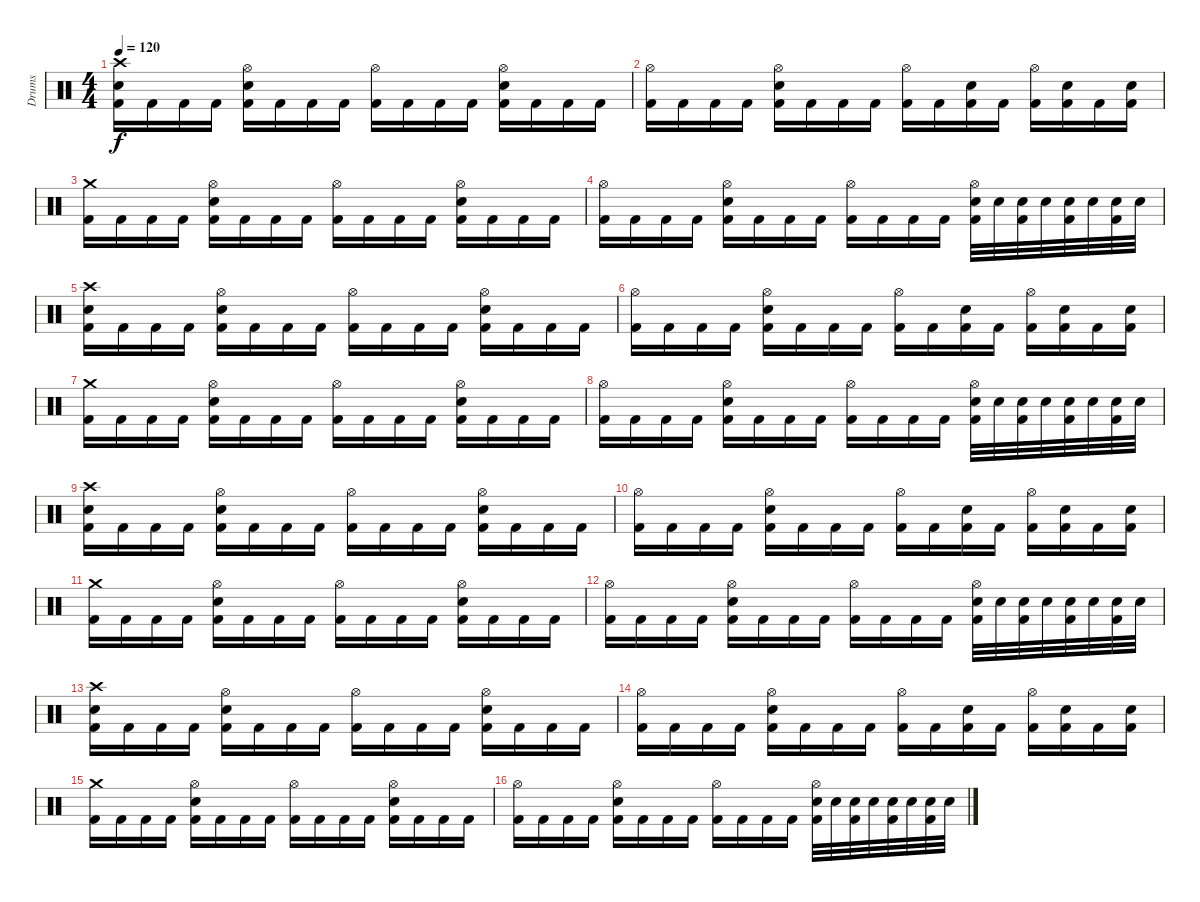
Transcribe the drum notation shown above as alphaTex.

\track ("Drums" "Drums") {instrument percussion}
\staff {score}
\articulation defaults
\ts (4 4)
\tempo 120
\clef neutral
\ks c
("Crash high (hit)" "Snare (hit) 2" "Kick (hit) 2").16{dy f} "Kick (hit) 2".16 "Kick (hit) 2".16 "Kick (hit) 2".16 ("Hi-Hat (open)" "Snare (hit) 2" "Kick (hit) 2").16 "Kick (hit) 2".16 "Kick (hit) 2".16 "Kick (hit) 2".16 ("Hi-Hat (open)" "Kick (hit) 2").16 "Kick (hit) 2".16 "Kick (hit) 2".16 "Kick (hit) 2".16 ("Hi-Hat (open)" "Snare (hit) 2" "Kick (hit) 2").16 "Kick (hit) 2".16 "Kick (hit) 2".16 "Kick (hit) 2".16 |
("Hi-Hat (open)" "Kick (hit) 2").16 "Kick (hit) 2".16 "Kick (hit) 2".16 "Kick (hit) 2".16 ("Hi-Hat (open)" "Snare (hit) 2" "Kick (hit) 2").16 "Kick (hit) 2".16 "Kick (hit) 2".16 "Kick (hit) 2".16 ("Hi-Hat (open)" "Kick (hit) 2").16 "Kick (hit) 2".16 ("Snare (hit) 2" "Kick (hit) 2").16 "Kick (hit) 2".16 ("Hi-Hat (open)" "Kick (hit) 2").16 ("Snare (hit) 2" "Kick (hit) 2").16 "Kick (hit) 2".16 ("Snare (hit) 2" "Kick (hit) 2").16 |
("Crash medium (hit)" "Kick (hit) 2").16 "Kick (hit) 2".16 "Kick (hit) 2".16 "Kick (hit) 2".16 ("Hi-Hat (open)" "Snare (hit) 2" "Kick (hit) 2").16 "Kick (hit) 2".16 "Kick (hit) 2".16 "Kick (hit) 2".16 ("Hi-Hat (open)" "Kick (hit) 2").16 "Kick (hit) 2".16 "Kick (hit) 2".16 "Kick (hit) 2".16 ("Hi-Hat (open)" "Snare (hit) 2" "Kick (hit) 2").16 "Kick (hit) 2".16 "Kick (hit) 2".16 "Kick (hit) 2".16 |
("Hi-Hat (open)" "Kick (hit) 2").16 "Kick (hit) 2".16 "Kick (hit) 2".16 "Kick (hit) 2".16 ("Hi-Hat (open)" "Snare (hit) 2" "Kick (hit) 2").16 "Kick (hit) 2".16 "Kick (hit) 2".16 "Kick (hit) 2".16 ("Hi-Hat (open)" "Kick (hit) 2").16 "Kick (hit) 2".16 "Kick (hit) 2".16 "Kick (hit) 2".16 ("Hi-Hat (open)" "Snare (hit) 2" "Kick (hit) 2").32 "Snare (hit) 2".32 ("Snare (hit) 2" "Kick (hit) 2").32 "Snare (hit) 2".32 ("Snare (hit) 2" "Kick (hit) 2").32 "Snare (hit) 2".32 ("Snare (hit) 2" "Kick (hit) 2").32 "Snare (hit) 2".32 |
("Crash high (hit)" "Snare (hit) 2" "Kick (hit) 2").16 "Kick (hit) 2".16 "Kick (hit) 2".16 "Kick (hit) 2".16 ("Hi-Hat (open)" "Snare (hit) 2" "Kick (hit) 2").16 "Kick (hit) 2".16 "Kick (hit) 2".16 "Kick (hit) 2".16 ("Hi-Hat (open)" "Kick (hit) 2").16 "Kick (hit) 2".16 "Kick (hit) 2".16 "Kick (hit) 2".16 ("Hi-Hat (open)" "Snare (hit) 2" "Kick (hit) 2").16 "Kick (hit) 2".16 "Kick (hit) 2".16 "Kick (hit) 2".16 |
("Hi-Hat (open)" "Kick (hit) 2").16 "Kick (hit) 2".16 "Kick (hit) 2".16 "Kick (hit) 2".16 ("Hi-Hat (open)" "Snare (hit) 2" "Kick (hit) 2").16 "Kick (hit) 2".16 "Kick (hit) 2".16 "Kick (hit) 2".16 ("Hi-Hat (open)" "Kick (hit) 2").16 "Kick (hit) 2".16 ("Snare (hit) 2" "Kick (hit) 2").16 "Kick (hit) 2".16 ("Hi-Hat (open)" "Kick (hit) 2").16 ("Snare (hit) 2" "Kick (hit) 2").16 "Kick (hit) 2".16 ("Snare (hit) 2" "Kick (hit) 2").16 |
("Crash medium (hit)" "Kick (hit) 2").16 "Kick (hit) 2".16 "Kick (hit) 2".16 "Kick (hit) 2".16 ("Hi-Hat (open)" "Snare (hit) 2" "Kick (hit) 2").16 "Kick (hit) 2".16 "Kick (hit) 2".16 "Kick (hit) 2".16 ("Hi-Hat (open)" "Kick (hit) 2").16 "Kick (hit) 2".16 "Kick (hit) 2".16 "Kick (hit) 2".16 ("Hi-Hat (open)" "Snare (hit) 2" "Kick (hit) 2").16 "Kick (hit) 2".16 "Kick (hit) 2".16 "Kick (hit) 2".16 |
("Hi-Hat (open)" "Kick (hit) 2").16 "Kick (hit) 2".16 "Kick (hit) 2".16 "Kick (hit) 2".16 ("Hi-Hat (open)" "Snare (hit) 2" "Kick (hit) 2").16 "Kick (hit) 2".16 "Kick (hit) 2".16 "Kick (hit) 2".16 ("Hi-Hat (open)" "Kick (hit) 2").16 "Kick (hit) 2".16 "Kick (hit) 2".16 "Kick (hit) 2".16 ("Hi-Hat (open)" "Snare (hit) 2" "Kick (hit) 2").32 "Snare (hit) 2".32 ("Snare (hit) 2" "Kick (hit) 2").32 "Snare (hit) 2".32 ("Snare (hit) 2" "Kick (hit) 2").32 "Snare (hit) 2".32 ("Snare (hit) 2" "Kick (hit) 2").32 "Snare (hit) 2".32 |
("Crash high (hit)" "Snare (hit) 2" "Kick (hit) 2").16 "Kick (hit) 2".16 "Kick (hit) 2".16 "Kick (hit) 2".16 ("Hi-Hat (open)" "Snare (hit) 2" "Kick (hit) 2").16 "Kick (hit) 2".16 "Kick (hit) 2".16 "Kick (hit) 2".16 ("Hi-Hat (open)" "Kick (hit) 2").16 "Kick (hit) 2".16 "Kick (hit) 2".16 "Kick (hit) 2".16 ("Hi-Hat (open)" "Snare (hit) 2" "Kick (hit) 2").16 "Kick (hit) 2".16 "Kick (hit) 2".16 "Kick (hit) 2".16 |
("Hi-Hat (open)" "Kick (hit) 2").16 "Kick (hit) 2".16 "Kick (hit) 2".16 "Kick (hit) 2".16 ("Hi-Hat (open)" "Snare (hit) 2" "Kick (hit) 2").16 "Kick (hit) 2".16 "Kick (hit) 2".16 "Kick (hit) 2".16 ("Hi-Hat (open)" "Kick (hit) 2").16 "Kick (hit) 2".16 ("Snare (hit) 2" "Kick (hit) 2").16 "Kick (hit) 2".16 ("Hi-Hat (open)" "Kick (hit) 2").16 ("Snare (hit) 2" "Kick (hit) 2").16 "Kick (hit) 2".16 ("Snare (hit) 2" "Kick (hit) 2").16 |
("Crash medium (hit)" "Kick (hit) 2").16 "Kick (hit) 2".16 "Kick (hit) 2".16 "Kick (hit) 2".16 ("Hi-Hat (open)" "Snare (hit) 2" "Kick (hit) 2").16 "Kick (hit) 2".16 "Kick (hit) 2".16 "Kick (hit) 2".16 ("Hi-Hat (open)" "Kick (hit) 2").16 "Kick (hit) 2".16 "Kick (hit) 2".16 "Kick (hit) 2".16 ("Hi-Hat (open)" "Snare (hit) 2" "Kick (hit) 2").16 "Kick (hit) 2".16 "Kick (hit) 2".16 "Kick (hit) 2".16 |
("Hi-Hat (open)" "Kick (hit) 2").16 "Kick (hit) 2".16 "Kick (hit) 2".16 "Kick (hit) 2".16 ("Hi-Hat (open)" "Snare (hit) 2" "Kick (hit) 2").16 "Kick (hit) 2".16 "Kick (hit) 2".16 "Kick (hit) 2".16 ("Hi-Hat (open)" "Kick (hit) 2").16 "Kick (hit) 2".16 "Kick (hit) 2".16 "Kick (hit) 2".16 ("Hi-Hat (open)" "Snare (hit) 2" "Kick (hit) 2").32 "Snare (hit) 2".32 ("Snare (hit) 2" "Kick (hit) 2").32 "Snare (hit) 2".32 ("Snare (hit) 2" "Kick (hit) 2").32 "Snare (hit) 2".32 ("Snare (hit) 2" "Kick (hit) 2").32 "Snare (hit) 2".32 |
("Crash high (hit)" "Snare (hit) 2" "Kick (hit) 2").16 "Kick (hit) 2".16 "Kick (hit) 2".16 "Kick (hit) 2".16 ("Hi-Hat (open)" "Snare (hit) 2" "Kick (hit) 2").16 "Kick (hit) 2".16 "Kick (hit) 2".16 "Kick (hit) 2".16 ("Hi-Hat (open)" "Kick (hit) 2").16 "Kick (hit) 2".16 "Kick (hit) 2".16 "Kick (hit) 2".16 ("Hi-Hat (open)" "Snare (hit) 2" "Kick (hit) 2").16 "Kick (hit) 2".16 "Kick (hit) 2".16 "Kick (hit) 2".16 |
("Hi-Hat (open)" "Kick (hit) 2").16 "Kick (hit) 2".16 "Kick (hit) 2".16 "Kick (hit) 2".16 ("Hi-Hat (open)" "Snare (hit) 2" "Kick (hit) 2").16 "Kick (hit) 2".16 "Kick (hit) 2".16 "Kick (hit) 2".16 ("Hi-Hat (open)" "Kick (hit) 2").16 "Kick (hit) 2".16 ("Snare (hit) 2" "Kick (hit) 2").16 "Kick (hit) 2".16 ("Hi-Hat (open)" "Kick (hit) 2").16 ("Snare (hit) 2" "Kick (hit) 2").16 "Kick (hit) 2".16 ("Snare (hit) 2" "Kick (hit) 2").16 |
("Crash medium (hit)" "Kick (hit) 2").16 "Kick (hit) 2".16 "Kick (hit) 2".16 "Kick (hit) 2".16 ("Hi-Hat (open)" "Snare (hit) 2" "Kick (hit) 2").16 "Kick (hit) 2".16 "Kick (hit) 2".16 "Kick (hit) 2".16 ("Hi-Hat (open)" "Kick (hit) 2").16 "Kick (hit) 2".16 "Kick (hit) 2".16 "Kick (hit) 2".16 ("Hi-Hat (open)" "Snare (hit) 2" "Kick (hit) 2").16 "Kick (hit) 2".16 "Kick (hit) 2".16 "Kick (hit) 2".16 |
("Hi-Hat (open)" "Kick (hit) 2").16 "Kick (hit) 2".16 "Kick (hit) 2".16 "Kick (hit) 2".16 ("Hi-Hat (open)" "Snare (hit) 2" "Kick (hit) 2").16 "Kick (hit) 2".16 "Kick (hit) 2".16 "Kick (hit) 2".16 ("Hi-Hat (open)" "Kick (hit) 2").16 "Kick (hit) 2".16 "Kick (hit) 2".16 "Kick (hit) 2".16 ("Hi-Hat (open)" "Snare (hit) 2" "Kick (hit) 2").32 "Snare (hit) 2".32 ("Snare (hit) 2" "Kick (hit) 2").32 "Snare (hit) 2".32 ("Snare (hit) 2" "Kick (hit) 2").32 "Snare (hit) 2".32 ("Snare (hit) 2" "Kick (hit) 2").32 "Snare (hit) 2".32
